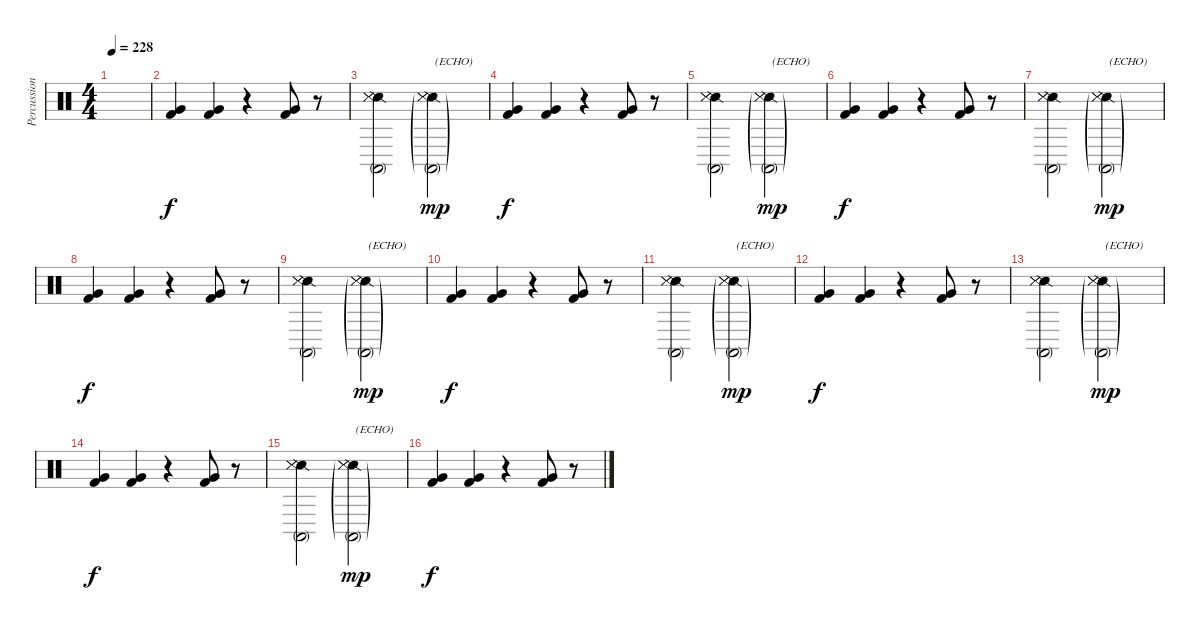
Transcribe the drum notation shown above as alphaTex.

\track ("Percussions" "Percussion") {instrument percussion}
\staff {score}
\articulation defaults
\ts (4 4)
\tempo 228
\clef neutral
\ks c
|
("Kick (hit) 2" "Very Low Tom (hit)").4 ("Kick (hit) 2" "Very Low Tom (hit)").4 r.4 ("Kick (hit) 2" "Very Low Tom (hit)").8 r.8 |
("Snare (side stick) 2" "Snare (side stick) 3" "Conga high (mute)" "Metronome (hit)").2 ("Snare (side stick) 2"{g} "Snare (side stick) 3"{g} "Conga high (mute)"{g} "Metronome (hit)"{g}).2{txt "(ECHO)" dy mp} |
("Kick (hit) 2" "Very Low Tom (hit)").4{dy f} ("Kick (hit) 2" "Very Low Tom (hit)").4 r.4 ("Kick (hit) 2" "Very Low Tom (hit)").8 r.8 |
("Snare (side stick) 2" "Snare (side stick) 3" "Conga high (mute)" "Metronome (hit)").2 ("Snare (side stick) 2"{g} "Snare (side stick) 3"{g} "Conga high (mute)"{g} "Metronome (hit)"{g}).2{txt "(ECHO)" dy mp} |
("Kick (hit) 2" "Very Low Tom (hit)").4{dy f} ("Kick (hit) 2" "Very Low Tom (hit)").4 r.4 ("Kick (hit) 2" "Very Low Tom (hit)").8 r.8 |
("Snare (side stick) 2" "Snare (side stick) 3" "Conga high (mute)" "Metronome (hit)").2 ("Snare (side stick) 2"{g} "Snare (side stick) 3"{g} "Conga high (mute)"{g} "Metronome (hit)"{g}).2{txt "(ECHO)" dy mp} |
("Kick (hit) 2" "Very Low Tom (hit)").4{dy f} ("Kick (hit) 2" "Very Low Tom (hit)").4 r.4 ("Kick (hit) 2" "Very Low Tom (hit)").8 r.8 |
("Snare (side stick) 2" "Snare (side stick) 3" "Conga high (mute)" "Metronome (hit)").2 ("Snare (side stick) 2"{g} "Snare (side stick) 3"{g} "Conga high (mute)"{g} "Metronome (hit)"{g}).2{txt "(ECHO)" dy mp} |
("Kick (hit) 2" "Very Low Tom (hit)").4{dy f} ("Kick (hit) 2" "Very Low Tom (hit)").4 r.4 ("Kick (hit) 2" "Very Low Tom (hit)").8 r.8 |
("Snare (side stick) 2" "Snare (side stick) 3" "Conga high (mute)" "Metronome (hit)").2 ("Snare (side stick) 2"{g} "Snare (side stick) 3"{g} "Conga high (mute)"{g} "Metronome (hit)"{g}).2{txt "(ECHO)" dy mp} |
("Kick (hit) 2" "Very Low Tom (hit)").4{dy f} ("Kick (hit) 2" "Very Low Tom (hit)").4 r.4 ("Kick (hit) 2" "Very Low Tom (hit)").8 r.8 |
("Snare (side stick) 2" "Snare (side stick) 3" "Conga high (mute)" "Metronome (hit)").2 ("Snare (side stick) 2"{g} "Snare (side stick) 3"{g} "Conga high (mute)"{g} "Metronome (hit)"{g}).2{txt "(ECHO)" dy mp} |
("Kick (hit) 2" "Very Low Tom (hit)").4{dy f} ("Kick (hit) 2" "Very Low Tom (hit)").4 r.4 ("Kick (hit) 2" "Very Low Tom (hit)").8 r.8 |
("Snare (side stick) 2" "Snare (side stick) 3" "Conga high (mute)" "Metronome (hit)").2 ("Snare (side stick) 2"{g} "Snare (side stick) 3"{g} "Conga high (mute)"{g} "Metronome (hit)"{g}).2{txt "(ECHO)" dy mp} |
("Kick (hit) 2" "Very Low Tom (hit)").4{dy f} ("Kick (hit) 2" "Very Low Tom (hit)").4 r.4 ("Kick (hit) 2" "Very Low Tom (hit)").8 r.8
